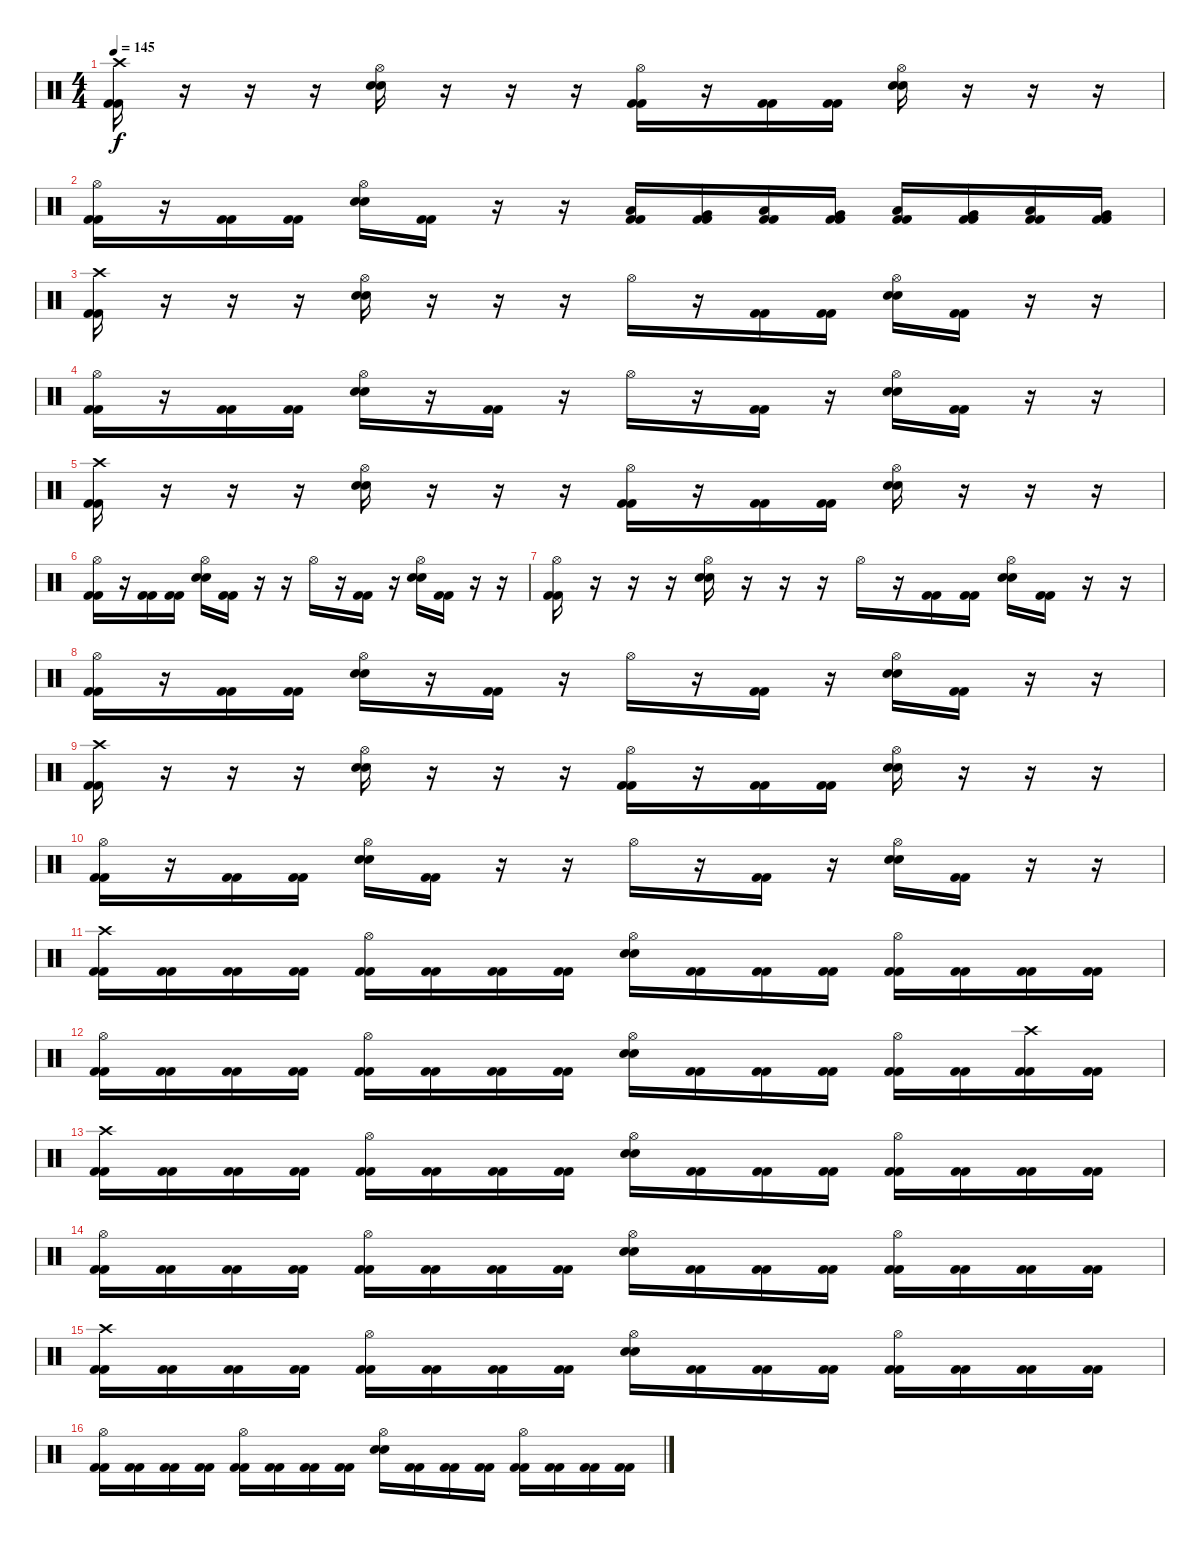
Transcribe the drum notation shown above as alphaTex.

\track "" {instrument percussion}
\staff {score}
\articulation defaults
\ts (4 4)
\tempo 145
\clef neutral
\ks c
("Crash high (hit)" "Kick (hit) 2" "Kick (hit) 2").16{dy f} r.16 r.16 r.16 ("Hi-Hat (open)" "Snare (hit) 2" "Snare (hit) 2").16 r.16 r.16 r.16 ("Hi-Hat (open)" "Kick (hit) 2" "Kick (hit) 2").16 r.16 ("Kick (hit) 2" "Kick (hit) 2").16 ("Kick (hit) 2" "Kick (hit) 2").16 ("Hi-Hat (open)" "Snare (hit) 2" "Snare (hit) 2").16 r.16 r.16 r.16 |
("Hi-Hat (open)" "Kick (hit) 2" "Kick (hit) 2").16 r.16 ("Kick (hit) 2" "Kick (hit) 2").16 ("Kick (hit) 2" "Kick (hit) 2").16 ("Hi-Hat (open)" "Snare (hit) 2" "Snare (hit) 2").16 ("Kick (hit) 2" "Kick (hit) 2").16 r.16 r.16 ("Low Tom (hit)" "Kick (hit) 2" "Kick (hit) 2").16 ("Very Low Tom (hit)" "Kick (hit) 2" "Kick (hit) 2").16 ("Low Tom (hit)" "Kick (hit) 2" "Kick (hit) 2").16 ("Very Low Tom (hit)" "Kick (hit) 2" "Kick (hit) 2").16 ("Low Tom (hit)" "Kick (hit) 2" "Kick (hit) 2").16 ("Very Low Tom (hit)" "Kick (hit) 2" "Kick (hit) 2").16 ("Low Tom (hit)" "Kick (hit) 2" "Kick (hit) 2").16 ("Very Low Tom (hit)" "Kick (hit) 2" "Kick (hit) 2").16 |
("Crash high (hit)" "Kick (hit) 2" "Kick (hit) 2").16 r.16 r.16 r.16 ("Hi-Hat (open)" "Snare (hit) 2" "Snare (hit) 2").16 r.16 r.16 r.16 "Hi-Hat (open)".16 r.16 ("Kick (hit) 2" "Kick (hit) 2").16 ("Kick (hit) 2" "Kick (hit) 2").16 ("Hi-Hat (open)" "Snare (hit) 2" "Snare (hit) 2").16 ("Kick (hit) 2" "Kick (hit) 2").16 r.16 r.16 |
("Hi-Hat (open)" "Kick (hit) 2" "Kick (hit) 2").16 r.16 ("Kick (hit) 2" "Kick (hit) 2").16 ("Kick (hit) 2" "Kick (hit) 2").16 ("Hi-Hat (open)" "Snare (hit) 2" "Snare (hit) 2").16 r.16 ("Kick (hit) 2" "Kick (hit) 2").16 r.16 "Hi-Hat (open)".16 r.16 ("Kick (hit) 2" "Kick (hit) 2").16 r.16 ("Hi-Hat (open)" "Snare (hit) 2" "Snare (hit) 2").16 ("Kick (hit) 2" "Kick (hit) 2").16 r.16 r.16 |
("Crash high (hit)" "Kick (hit) 2" "Kick (hit) 2").16 r.16 r.16 r.16 ("Hi-Hat (open)" "Snare (hit) 2" "Snare (hit) 2").16 r.16 r.16 r.16 ("Hi-Hat (open)" "Kick (hit) 2" "Kick (hit) 2").16 r.16 ("Kick (hit) 2" "Kick (hit) 2").16 ("Kick (hit) 2" "Kick (hit) 2").16 ("Hi-Hat (open)" "Snare (hit) 2" "Snare (hit) 2").16 r.16 r.16 r.16 |
("Hi-Hat (open)" "Kick (hit) 2" "Kick (hit) 2").16 r.16 ("Kick (hit) 2" "Kick (hit) 2").16 ("Kick (hit) 2" "Kick (hit) 2").16 ("Hi-Hat (open)" "Snare (hit) 2" "Snare (hit) 2").16 ("Kick (hit) 2" "Kick (hit) 2").16 r.16 r.16 "Hi-Hat (open)".16 r.16 ("Kick (hit) 2" "Kick (hit) 2").16 r.16 ("Hi-Hat (open)" "Snare (hit) 2" "Snare (hit) 2").16 ("Kick (hit) 2" "Kick (hit) 2").16 r.16 r.16 |
("Hi-Hat (open)" "Kick (hit) 2" "Kick (hit) 2").16 r.16 r.16 r.16 ("Hi-Hat (open)" "Snare (hit) 2" "Snare (hit) 2").16 r.16 r.16 r.16 "Hi-Hat (open)".16 r.16 ("Kick (hit) 2" "Kick (hit) 2").16 ("Kick (hit) 2" "Kick (hit) 2").16 ("Hi-Hat (open)" "Snare (hit) 2" "Snare (hit) 2").16 ("Kick (hit) 2" "Kick (hit) 2").16 r.16 r.16 |
("Hi-Hat (open)" "Kick (hit) 2" "Kick (hit) 2").16 r.16 ("Kick (hit) 2" "Kick (hit) 2").16 ("Kick (hit) 2" "Kick (hit) 2").16 ("Hi-Hat (open)" "Snare (hit) 2" "Snare (hit) 2").16 r.16 ("Kick (hit) 2" "Kick (hit) 2").16 r.16 "Hi-Hat (open)".16 r.16 ("Kick (hit) 2" "Kick (hit) 2").16 r.16 ("Hi-Hat (open)" "Snare (hit) 2" "Snare (hit) 2").16 ("Kick (hit) 2" "Kick (hit) 2").16 r.16 r.16 |
("Crash high (hit)" "Kick (hit) 2" "Kick (hit) 2").16 r.16 r.16 r.16 ("Hi-Hat (open)" "Snare (hit) 2" "Snare (hit) 2").16 r.16 r.16 r.16 ("Hi-Hat (open)" "Kick (hit) 2" "Kick (hit) 2").16 r.16 ("Kick (hit) 2" "Kick (hit) 2").16 ("Kick (hit) 2" "Kick (hit) 2").16 ("Hi-Hat (open)" "Snare (hit) 2" "Snare (hit) 2").16 r.16 r.16 r.16 |
("Hi-Hat (open)" "Kick (hit) 2" "Kick (hit) 2").16 r.16 ("Kick (hit) 2" "Kick (hit) 2").16 ("Kick (hit) 2" "Kick (hit) 2").16 ("Hi-Hat (open)" "Snare (hit) 2" "Snare (hit) 2").16 ("Kick (hit) 2" "Kick (hit) 2").16 r.16 r.16 "Hi-Hat (open)".16 r.16 ("Kick (hit) 2" "Kick (hit) 2").16 r.16 ("Hi-Hat (open)" "Snare (hit) 2" "Snare (hit) 2").16 ("Kick (hit) 2" "Kick (hit) 2").16 r.16 r.16 |
("Crash high (hit)" "Kick (hit) 2" "Kick (hit) 2").16 ("Kick (hit) 2" "Kick (hit) 2").16 ("Kick (hit) 2" "Kick (hit) 2").16 ("Kick (hit) 2" "Kick (hit) 2").16 ("Hi-Hat (open)" "Kick (hit) 2" "Kick (hit) 2").16 ("Kick (hit) 2" "Kick (hit) 2").16 ("Kick (hit) 2" "Kick (hit) 2").16 ("Kick (hit) 2" "Kick (hit) 2").16 ("Hi-Hat (open)" "Snare (hit) 2" "Snare (hit) 2").16 ("Kick (hit) 2" "Kick (hit) 2").16 ("Kick (hit) 2" "Kick (hit) 2").16 ("Kick (hit) 2" "Kick (hit) 2").16 ("Hi-Hat (open)" "Kick (hit) 2" "Kick (hit) 2").16 ("Kick (hit) 2" "Kick (hit) 2").16 ("Kick (hit) 2" "Kick (hit) 2").16 ("Kick (hit) 2" "Kick (hit) 2").16 |
("Hi-Hat (open)" "Kick (hit) 2" "Kick (hit) 2").16 ("Kick (hit) 2" "Kick (hit) 2").16 ("Kick (hit) 2" "Kick (hit) 2").16 ("Kick (hit) 2" "Kick (hit) 2").16 ("Hi-Hat (open)" "Kick (hit) 2" "Kick (hit) 2").16 ("Kick (hit) 2" "Kick (hit) 2").16 ("Kick (hit) 2" "Kick (hit) 2").16 ("Kick (hit) 2" "Kick (hit) 2").16 ("Hi-Hat (open)" "Snare (hit) 2" "Snare (hit) 2").16 ("Kick (hit) 2" "Kick (hit) 2").16 ("Kick (hit) 2" "Kick (hit) 2").16 ("Kick (hit) 2" "Kick (hit) 2").16 ("Hi-Hat (open)" "Kick (hit) 2" "Kick (hit) 2").16 ("Kick (hit) 2" "Kick (hit) 2").16 ("Crash high (hit)" "Kick (hit) 2" "Kick (hit) 2").16 ("Kick (hit) 2" "Kick (hit) 2").16 |
("Crash high (hit)" "Kick (hit) 2" "Kick (hit) 2").16 ("Kick (hit) 2" "Kick (hit) 2").16 ("Kick (hit) 2" "Kick (hit) 2").16 ("Kick (hit) 2" "Kick (hit) 2").16 ("Hi-Hat (open)" "Kick (hit) 2" "Kick (hit) 2").16 ("Kick (hit) 2" "Kick (hit) 2").16 ("Kick (hit) 2" "Kick (hit) 2").16 ("Kick (hit) 2" "Kick (hit) 2").16 ("Hi-Hat (open)" "Snare (hit) 2" "Snare (hit) 2").16 ("Kick (hit) 2" "Kick (hit) 2").16 ("Kick (hit) 2" "Kick (hit) 2").16 ("Kick (hit) 2" "Kick (hit) 2").16 ("Hi-Hat (open)" "Kick (hit) 2" "Kick (hit) 2").16 ("Kick (hit) 2" "Kick (hit) 2").16 ("Kick (hit) 2" "Kick (hit) 2").16 ("Kick (hit) 2" "Kick (hit) 2").16 |
("Hi-Hat (open)" "Kick (hit) 2" "Kick (hit) 2").16 ("Kick (hit) 2" "Kick (hit) 2").16 ("Kick (hit) 2" "Kick (hit) 2").16 ("Kick (hit) 2" "Kick (hit) 2").16 ("Hi-Hat (open)" "Kick (hit) 2" "Kick (hit) 2").16 ("Kick (hit) 2" "Kick (hit) 2").16 ("Kick (hit) 2" "Kick (hit) 2").16 ("Kick (hit) 2" "Kick (hit) 2").16 ("Hi-Hat (open)" "Snare (hit) 2" "Snare (hit) 2").16 ("Kick (hit) 2" "Kick (hit) 2").16 ("Kick (hit) 2" "Kick (hit) 2").16 ("Kick (hit) 2" "Kick (hit) 2").16 ("Hi-Hat (open)" "Kick (hit) 2" "Kick (hit) 2").16 ("Kick (hit) 2" "Kick (hit) 2").16 ("Kick (hit) 2" "Kick (hit) 2").16 ("Kick (hit) 2" "Kick (hit) 2").16 |
("Crash high (hit)" "Kick (hit) 2" "Kick (hit) 2").16 ("Kick (hit) 2" "Kick (hit) 2").16 ("Kick (hit) 2" "Kick (hit) 2").16 ("Kick (hit) 2" "Kick (hit) 2").16 ("Hi-Hat (open)" "Kick (hit) 2" "Kick (hit) 2").16 ("Kick (hit) 2" "Kick (hit) 2").16 ("Kick (hit) 2" "Kick (hit) 2").16 ("Kick (hit) 2" "Kick (hit) 2").16 ("Hi-Hat (open)" "Snare (hit) 2" "Snare (hit) 2").16 ("Kick (hit) 2" "Kick (hit) 2").16 ("Kick (hit) 2" "Kick (hit) 2").16 ("Kick (hit) 2" "Kick (hit) 2").16 ("Hi-Hat (open)" "Kick (hit) 2" "Kick (hit) 2").16 ("Kick (hit) 2" "Kick (hit) 2").16 ("Kick (hit) 2" "Kick (hit) 2").16 ("Kick (hit) 2" "Kick (hit) 2").16 |
("Hi-Hat (open)" "Kick (hit) 2" "Kick (hit) 2").16 ("Kick (hit) 2" "Kick (hit) 2").16 ("Kick (hit) 2" "Kick (hit) 2").16 ("Kick (hit) 2" "Kick (hit) 2").16 ("Hi-Hat (open)" "Kick (hit) 2" "Kick (hit) 2").16 ("Kick (hit) 2" "Kick (hit) 2").16 ("Kick (hit) 2" "Kick (hit) 2").16 ("Kick (hit) 2" "Kick (hit) 2").16 ("Hi-Hat (open)" "Snare (hit) 2" "Snare (hit) 2").16 ("Kick (hit) 2" "Kick (hit) 2").16 ("Kick (hit) 2" "Kick (hit) 2").16 ("Kick (hit) 2" "Kick (hit) 2").16 ("Hi-Hat (open)" "Kick (hit) 2" "Kick (hit) 2").16 ("Kick (hit) 2" "Kick (hit) 2").16 ("Kick (hit) 2" "Kick (hit) 2").16 ("Kick (hit) 2" "Kick (hit) 2").16
